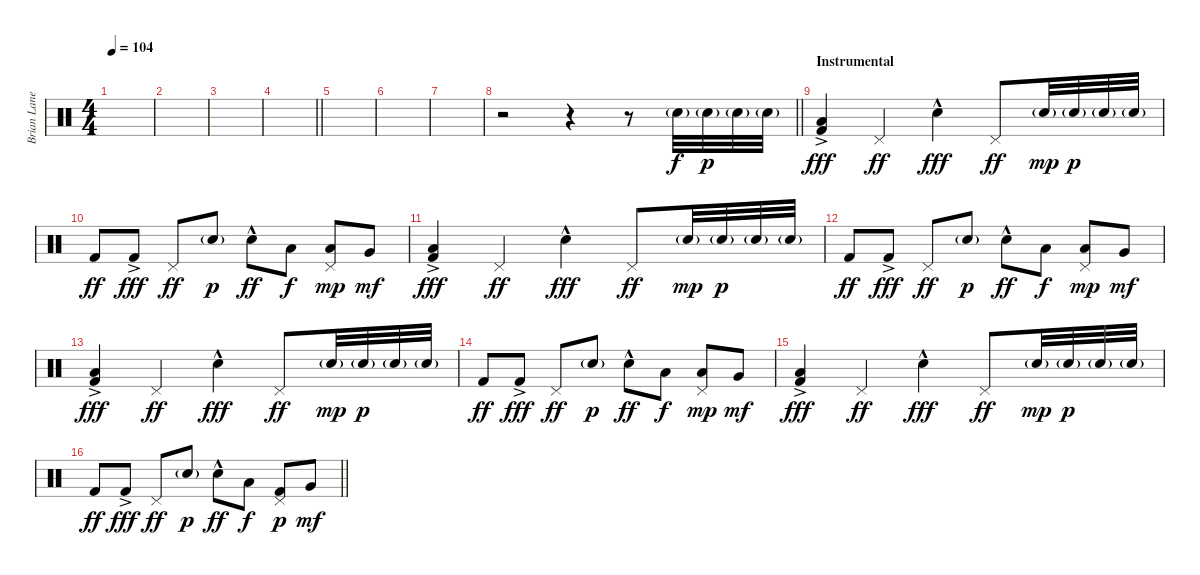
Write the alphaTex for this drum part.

\track ("Brian Lane - Drums" "Brian Lane") {instrument percussion}
\staff {score}
\articulation defaults
\ts (4 4)
\tempo 104
\clef neutral
\ks c
|
|
|
\barLineRight lightlight
|
\section ("" "")
|
|
|
\barLineRight lightlight
r.2 r.4 r.8 "Snare (hit) 2"{g}.32 "Snare (hit) 2"{g}.32{dy p} "Snare (hit) 2"{g}.32 "Snare (hit) 2"{g}.32 |
\section ("" "Instrumental")
("Low Floor Tom (hit)" "Kick (hit) 2"{ac}).4{dy fff} "Pedal Hi-Hat (hit)".4{dy ff} "Snare (hit) 2"{hac}.4{dy fff} "Pedal Hi-Hat (hit)".8{dy ff} "Snare (hit) 2"{g}.32{dy mp} "Snare (hit) 2"{g}.32{dy p} "Snare (hit) 2"{g}.32 "Snare (hit) 2"{g}.32 |
"Kick (hit) 2".8{dy ff} "Kick (hit) 2"{ac}.8{dy fff} "Pedal Hi-Hat (hit)".8{dy ff} "Snare (hit) 2"{g}.8{dy p} "Snare (hit) 2"{hac}.8{dy ff} "Low Tom (hit)".8{dy f} ("Pedal Hi-Hat (hit)" "Low Tom (hit)").8{dy mp} "Very Low Tom (hit)".8{dy mf} |
("Low Floor Tom (hit)" "Kick (hit) 2"{ac}).4{dy fff} "Pedal Hi-Hat (hit)".4{dy ff} "Snare (hit) 2"{hac}.4{dy fff} "Pedal Hi-Hat (hit)".8{dy ff} "Snare (hit) 2"{g}.32{dy mp} "Snare (hit) 2"{g}.32{dy p} "Snare (hit) 2"{g}.32 "Snare (hit) 2"{g}.32 |
"Kick (hit) 2".8{dy ff} "Kick (hit) 2"{ac}.8{dy fff} "Pedal Hi-Hat (hit)".8{dy ff} "Snare (hit) 2"{g}.8{dy p} "Snare (hit) 2"{hac}.8{dy ff} "Low Tom (hit)".8{dy f} ("Pedal Hi-Hat (hit)" "Low Tom (hit)").8{dy mp} "Very Low Tom (hit)".8{dy mf} |
("Low Floor Tom (hit)" "Kick (hit) 2"{ac}).4{dy fff} "Pedal Hi-Hat (hit)".4{dy ff} "Snare (hit) 2"{hac}.4{dy fff} "Pedal Hi-Hat (hit)".8{dy ff} "Snare (hit) 2"{g}.32{dy mp} "Snare (hit) 2"{g}.32{dy p} "Snare (hit) 2"{g}.32 "Snare (hit) 2"{g}.32 |
"Kick (hit) 2".8{dy ff} "Kick (hit) 2"{ac}.8{dy fff} "Pedal Hi-Hat (hit)".8{dy ff} "Snare (hit) 2"{g}.8{dy p} "Snare (hit) 2"{hac}.8{dy ff} "Low Tom (hit)".8{dy f} ("Pedal Hi-Hat (hit)" "Low Tom (hit)").8{dy mp} "Very Low Tom (hit)".8{dy mf} |
("Low Floor Tom (hit)" "Kick (hit) 2"{ac}).4{dy fff} "Pedal Hi-Hat (hit)".4{dy ff} "Snare (hit) 2"{hac}.4{dy fff} "Pedal Hi-Hat (hit)".8{dy ff} "Snare (hit) 2"{g}.32{dy mp} "Snare (hit) 2"{g}.32{dy p} "Snare (hit) 2"{g}.32 "Snare (hit) 2"{g}.32 |
\barLineRight lightlight "Kick (hit) 2".8{dy ff} "Kick (hit) 2"{ac}.8{dy fff} "Pedal Hi-Hat (hit)".8{dy ff} "Snare (hit) 2"{g}.8{dy p} "Snare (hit) 2"{hac}.8{dy ff} "Low Tom (hit)".8{dy f}
("Pedal Hi-Hat (hit)" "Kick (hit) 2").8{dy p} "Very Low Tom (hit)".8{dy mf}
